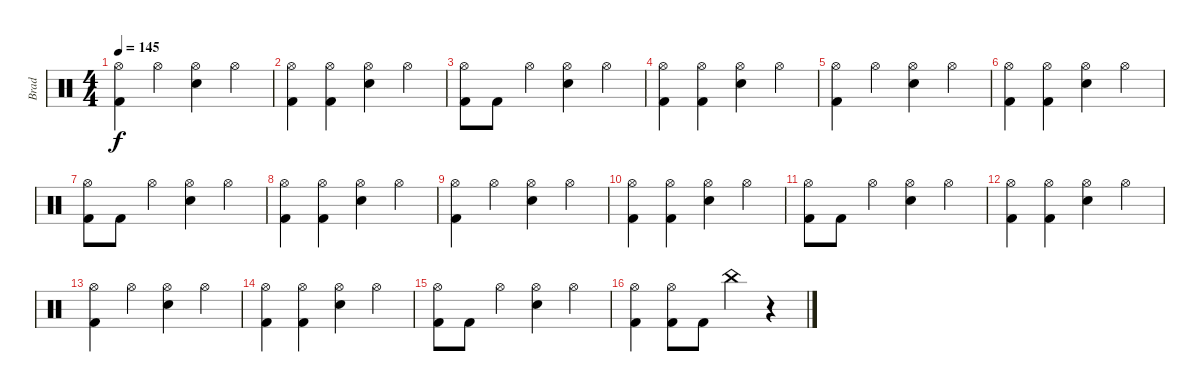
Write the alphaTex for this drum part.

\track ("Brad" "Brad") {instrument percussion}
\staff {score}
\articulation defaults
\ts (4 4)
\tempo 145
\clef neutral
\ks c
("Hi-Hat (open)" "Kick (hit) 2").4{dy f} "Hi-Hat (open)".4 ("Hi-Hat (open)" "Snare (hit) 2").4 "Hi-Hat (open)".4 |
("Hi-Hat (open)" "Kick (hit) 2").4 ("Hi-Hat (open)" "Kick (hit) 2").4 ("Hi-Hat (open)" "Snare (hit) 2").4 "Hi-Hat (open)".4 |
("Hi-Hat (open)" "Kick (hit) 2").8 "Kick (hit) 2".8 "Hi-Hat (open)".4 ("Hi-Hat (open)" "Snare (hit) 2").4 "Hi-Hat (open)".4 |
("Hi-Hat (open)" "Kick (hit) 2").4 ("Hi-Hat (open)" "Kick (hit) 2").4 ("Hi-Hat (open)" "Snare (hit) 2").4 "Hi-Hat (open)".4 |
("Hi-Hat (open)" "Kick (hit) 2").4 "Hi-Hat (open)".4 ("Hi-Hat (open)" "Snare (hit) 2").4 "Hi-Hat (open)".4 |
("Hi-Hat (open)" "Kick (hit) 2").4 ("Hi-Hat (open)" "Kick (hit) 2").4 ("Hi-Hat (open)" "Snare (hit) 2").4 "Hi-Hat (open)".4 |
("Hi-Hat (open)" "Kick (hit) 2").8 "Kick (hit) 2".8 "Hi-Hat (open)".4 ("Hi-Hat (open)" "Snare (hit) 2").4 "Hi-Hat (open)".4 |
("Hi-Hat (open)" "Kick (hit) 2").4 ("Hi-Hat (open)" "Kick (hit) 2").4 ("Hi-Hat (open)" "Snare (hit) 2").4 "Hi-Hat (open)".4 |
("Hi-Hat (open)" "Kick (hit) 2").4 "Hi-Hat (open)".4 ("Hi-Hat (open)" "Snare (hit) 2").4 "Hi-Hat (open)".4 |
("Hi-Hat (open)" "Kick (hit) 2").4 ("Hi-Hat (open)" "Kick (hit) 2").4 ("Hi-Hat (open)" "Snare (hit) 2").4 "Hi-Hat (open)".4 |
("Hi-Hat (open)" "Kick (hit) 2").8 "Kick (hit) 2".8 "Hi-Hat (open)".4 ("Hi-Hat (open)" "Snare (hit) 2").4 "Hi-Hat (open)".4 |
("Hi-Hat (open)" "Kick (hit) 2").4 ("Hi-Hat (open)" "Kick (hit) 2").4 ("Hi-Hat (open)" "Snare (hit) 2").4 "Hi-Hat (open)".4 |
("Hi-Hat (open)" "Kick (hit) 2").4 "Hi-Hat (open)".4 ("Hi-Hat (open)" "Snare (hit) 2").4 "Hi-Hat (open)".4 |
("Hi-Hat (open)" "Kick (hit) 2").4 ("Hi-Hat (open)" "Kick (hit) 2").4 ("Hi-Hat (open)" "Snare (hit) 2").4 "Hi-Hat (open)".4 |
("Hi-Hat (open)" "Kick (hit) 2").8 "Kick (hit) 2".8 "Hi-Hat (open)".4 ("Hi-Hat (open)" "Snare (hit) 2").4 "Hi-Hat (open)".4 |
("Hi-Hat (open)" "Kick (hit) 2").4 ("Hi-Hat (open)" "Kick (hit) 2").8 "Kick (hit) 2".8 "China (hit)".4 r.4
